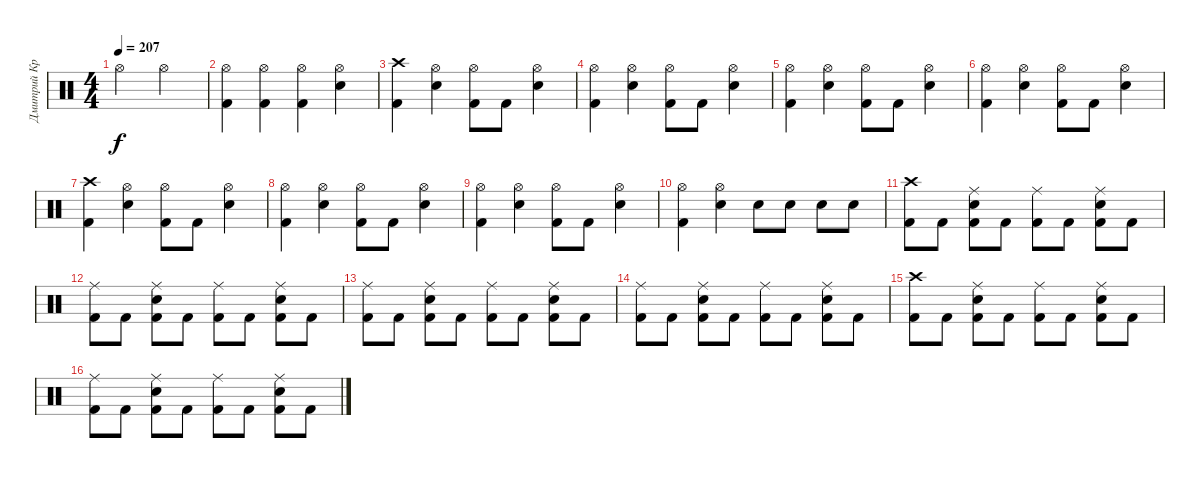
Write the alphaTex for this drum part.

\track ("Дмитрий Кривенков" "Дмитрий Кр") {instrument percussion}
\staff {score}
\articulation defaults
\ts (4 4)
\tempo 207
\clef neutral
\ks c "Hi-Hat (open)".2{dy f} "Hi-Hat (open)".2
|
("Hi-Hat (open)" "Kick (hit) 2").4 ("Hi-Hat (open)" "Kick (hit) 2").4 ("Hi-Hat (open)" "Kick (hit) 2").4 ("Hi-Hat (open)" "Electric Snare (hit)").4 |
("Crash high (hit)" "Kick (hit) 2").4 ("Hi-Hat (open)" "Electric Snare (hit)").4 ("Hi-Hat (open)" "Kick (hit) 2").8 "Kick (hit) 2".8 ("Hi-Hat (open)" "Electric Snare (hit)").4 |
("Hi-Hat (open)" "Kick (hit) 2").4 ("Hi-Hat (open)" "Electric Snare (hit)").4 ("Hi-Hat (open)" "Kick (hit) 2").8 "Kick (hit) 2".8 ("Hi-Hat (open)" "Electric Snare (hit)").4 |
("Hi-Hat (open)" "Kick (hit) 2").4 ("Hi-Hat (open)" "Electric Snare (hit)").4 ("Hi-Hat (open)" "Kick (hit) 2").8 "Kick (hit) 2".8 ("Hi-Hat (open)" "Electric Snare (hit)").4 |
("Hi-Hat (open)" "Kick (hit) 2").4 ("Hi-Hat (open)" "Electric Snare (hit)").4 ("Hi-Hat (open)" "Kick (hit) 2").8 "Kick (hit) 2".8 ("Hi-Hat (open)" "Electric Snare (hit)").4 |
("Crash high (hit)" "Kick (hit) 2").4 ("Hi-Hat (open)" "Electric Snare (hit)").4 ("Hi-Hat (open)" "Kick (hit) 2").8 "Kick (hit) 2".8 ("Hi-Hat (open)" "Electric Snare (hit)").4 |
("Hi-Hat (open)" "Kick (hit) 2").4 ("Hi-Hat (open)" "Electric Snare (hit)").4 ("Hi-Hat (open)" "Kick (hit) 2").8 "Kick (hit) 2".8 ("Hi-Hat (open)" "Electric Snare (hit)").4 |
("Hi-Hat (open)" "Kick (hit) 2").4 ("Hi-Hat (open)" "Electric Snare (hit)").4 ("Hi-Hat (open)" "Kick (hit) 2").8 "Kick (hit) 2".8 ("Hi-Hat (open)" "Electric Snare (hit)").4 |
("Hi-Hat (open)" "Kick (hit) 2").4 ("Hi-Hat (open)" "Electric Snare (hit)").4 "Electric Snare (hit)".8 "Electric Snare (hit)".8 "Electric Snare (hit)".8 "Electric Snare (hit)".8 |
("Crash high (hit)" "Kick (hit) 2").8 "Kick (hit) 2".8 ("Ride (middle)" "Electric Snare (hit)" "Kick (hit) 2").8 "Kick (hit) 2".8 ("Ride (middle)" "Kick (hit) 2").8 "Kick (hit) 2".8 ("Ride (middle)" "Electric Snare (hit)" "Kick (hit) 2").8 "Kick (hit) 2".8 |
("Ride (middle)" "Kick (hit) 2").8 "Kick (hit) 2".8 ("Ride (middle)" "Electric Snare (hit)" "Kick (hit) 2").8 "Kick (hit) 2".8 ("Ride (middle)" "Kick (hit) 2").8 "Kick (hit) 2".8 ("Ride (middle)" "Electric Snare (hit)" "Kick (hit) 2").8 "Kick (hit) 2".8 |
("Ride (middle)" "Kick (hit) 2").8 "Kick (hit) 2".8 ("Ride (middle)" "Electric Snare (hit)" "Kick (hit) 2").8 "Kick (hit) 2".8 ("Ride (middle)" "Kick (hit) 2").8 "Kick (hit) 2".8 ("Ride (middle)" "Electric Snare (hit)" "Kick (hit) 2").8 "Kick (hit) 2".8 |
("Ride (middle)" "Kick (hit) 2").8 "Kick (hit) 2".8 ("Ride (middle)" "Electric Snare (hit)" "Kick (hit) 2").8 "Kick (hit) 2".8 ("Ride (middle)" "Kick (hit) 2").8 "Kick (hit) 2".8 ("Ride (middle)" "Electric Snare (hit)" "Kick (hit) 2").8 "Kick (hit) 2".8 |
("Crash high (hit)" "Kick (hit) 2").8 "Kick (hit) 2".8 ("Ride (middle)" "Electric Snare (hit)" "Kick (hit) 2").8 "Kick (hit) 2".8 ("Ride (middle)" "Kick (hit) 2").8 "Kick (hit) 2".8 ("Ride (middle)" "Electric Snare (hit)" "Kick (hit) 2").8 "Kick (hit) 2".8 |
("Ride (middle)" "Kick (hit) 2").8 "Kick (hit) 2".8 ("Ride (middle)" "Electric Snare (hit)" "Kick (hit) 2").8 "Kick (hit) 2".8 ("Ride (middle)" "Kick (hit) 2").8 "Kick (hit) 2".8 ("Ride (middle)" "Electric Snare (hit)" "Kick (hit) 2").8 "Kick (hit) 2".8
